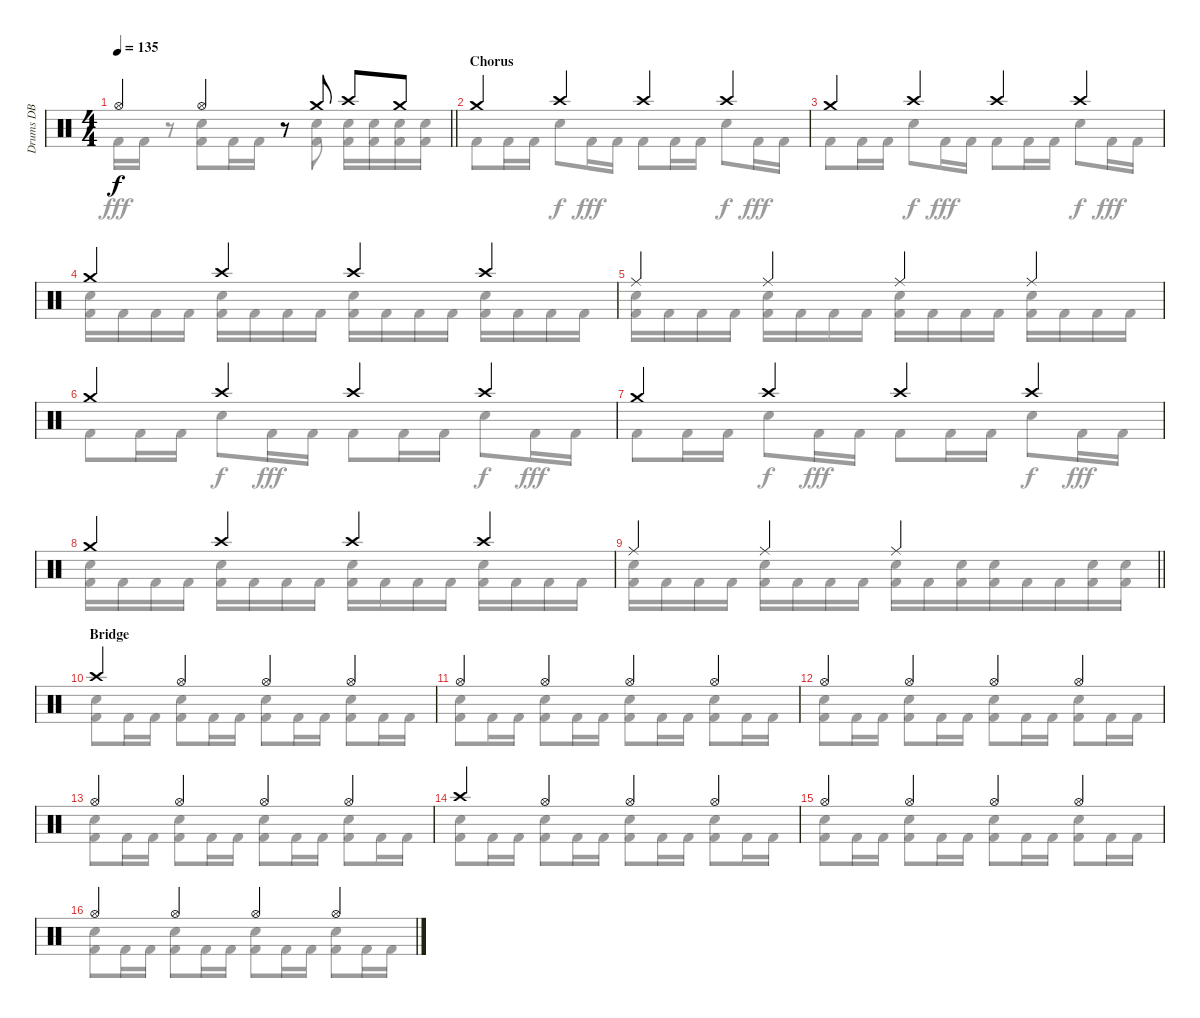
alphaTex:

\track ("Drums DB" "Drums DB") {instrument percussion}
\staff {score}
\articulation defaults
\voice
\ts (4 4)
\tempo 135
\clef neutral
\barLineRight lightlight
\ks aminor "Hi-Hat (open)".4{dy f} "Hi-Hat (open)".4
r.8 "Crash medium (hit)".8 "Crash high (hit)".8 "Crash medium (hit)".8 |
\section ("" "Chorus")
"Crash medium (hit)".4 "Crash high (hit)".4 "Crash high (hit)".4 "Crash high (hit)".4 |
"Crash medium (hit)".4 "Crash high (hit)".4 "Crash high (hit)".4 "Crash high (hit)".4 |
"Crash medium (hit)".4 "Crash high (hit)".4 "Crash high (hit)".4 "Crash high (hit)".4 |
"Ride (middle)".4 "Ride (middle)".4 "Ride (middle)".4 "Ride (middle)".4 |
"Crash medium (hit)".4 "Crash high (hit)".4 "Crash high (hit)".4 "Crash high (hit)".4 |
"Crash medium (hit)".4 "Crash high (hit)".4 "Crash high (hit)".4 "Crash high (hit)".4 |
"Crash medium (hit)".4 "Crash high (hit)".4 "Crash high (hit)".4 "Crash high (hit)".4 |
\barLineRight lightlight "Ride (middle)".4 "Ride (middle)".4 "Ride (middle)".2
|
\section ("" "Bridge")
"Crash high (hit)".4 "Hi-Hat (open)".4 "Hi-Hat (open)".4 "Hi-Hat (open)".4 |
"Hi-Hat (open)".4 "Hi-Hat (open)".4 "Hi-Hat (open)".4 "Hi-Hat (open)".4 |
"Hi-Hat (open)".4 "Hi-Hat (open)".4 "Hi-Hat (open)".4 "Hi-Hat (open)".4 |
"Hi-Hat (open)".4 "Hi-Hat (open)".4 "Hi-Hat (open)".4 "Hi-Hat (open)".4 |
"Crash high (hit)".4 "Hi-Hat (open)".4 "Hi-Hat (open)".4 "Hi-Hat (open)".4 |
"Hi-Hat (open)".4 "Hi-Hat (open)".4 "Hi-Hat (open)".4 "Hi-Hat (open)".4 |
"Hi-Hat (open)".4 "Hi-Hat (open)".4 "Hi-Hat (open)".4 "Hi-Hat (open)".4
\voice
\clef neutral
\ottava regular
\simile none
\barLineRight lightlight
\ks aminor "Kick (hit) 2".16{dy fff} "Kick (hit) 2".16
r.8 ("Snare (hit) 2" "Kick (hit) 2").8 "Kick (hit) 2".16 "Kick (hit) 2".16 r.8 ("Snare (hit) 2" "Kick (hit) 2").8 ("Snare (hit) 2" "Kick (hit) 2").16 ("Snare (hit) 2" "Kick (hit) 2").16 ("Snare (hit) 2" "Kick (hit) 2").16 ("Snare (hit) 2" "Kick (hit) 2").16 |
"Kick (hit) 2".8 "Kick (hit) 2".16 "Kick (hit) 2".16 "Snare (hit) 2".8{dy f} "Kick (hit) 2".16{dy fff} "Kick (hit) 2".16 "Kick (hit) 2".8 "Kick (hit) 2".16 "Kick (hit) 2".16 "Snare (hit) 2".8{dy f} "Kick (hit) 2".16{dy fff} "Kick (hit) 2".16 |
"Kick (hit) 2".8 "Kick (hit) 2".16 "Kick (hit) 2".16 "Snare (hit) 2".8{dy f} "Kick (hit) 2".16{dy fff} "Kick (hit) 2".16 "Kick (hit) 2".8 "Kick (hit) 2".16 "Kick (hit) 2".16 "Snare (hit) 2".8{dy f} "Kick (hit) 2".16{dy fff} "Kick (hit) 2".16 |
("Snare (hit) 2" "Kick (hit) 2").16 "Kick (hit) 2".16 "Kick (hit) 2".16 "Kick (hit) 2".16 ("Snare (hit) 2" "Kick (hit) 2").16 "Kick (hit) 2".16 "Kick (hit) 2".16 "Kick (hit) 2".16 ("Snare (hit) 2" "Kick (hit) 2").16 "Kick (hit) 2".16 "Kick (hit) 2".16 "Kick (hit) 2".16 ("Snare (hit) 2" "Kick (hit) 2").16 "Kick (hit) 2".16 "Kick (hit) 2".16 "Kick (hit) 2".16 |
("Snare (hit) 2" "Kick (hit) 2").16 "Kick (hit) 2".16 "Kick (hit) 2".16 "Kick (hit) 2".16 ("Snare (hit) 2" "Kick (hit) 2").16 "Kick (hit) 2".16 "Kick (hit) 2".16 "Kick (hit) 2".16 ("Snare (hit) 2" "Kick (hit) 2").16 "Kick (hit) 2".16 "Kick (hit) 2".16 "Kick (hit) 2".16 ("Snare (hit) 2" "Kick (hit) 2").16 "Kick (hit) 2".16 "Kick (hit) 2".16 "Kick (hit) 2".16 |
"Kick (hit) 2".8 "Kick (hit) 2".16 "Kick (hit) 2".16 "Snare (hit) 2".8{dy f} "Kick (hit) 2".16{dy fff} "Kick (hit) 2".16 "Kick (hit) 2".8 "Kick (hit) 2".16 "Kick (hit) 2".16 "Snare (hit) 2".8{dy f} "Kick (hit) 2".16{dy fff} "Kick (hit) 2".16 |
"Kick (hit) 2".8 "Kick (hit) 2".16 "Kick (hit) 2".16 "Snare (hit) 2".8{dy f} "Kick (hit) 2".16{dy fff} "Kick (hit) 2".16 "Kick (hit) 2".8 "Kick (hit) 2".16 "Kick (hit) 2".16 "Snare (hit) 2".8{dy f} "Kick (hit) 2".16{dy fff} "Kick (hit) 2".16 |
("Snare (hit) 2" "Kick (hit) 2").16 "Kick (hit) 2".16 "Kick (hit) 2".16 "Kick (hit) 2".16 ("Snare (hit) 2" "Kick (hit) 2").16 "Kick (hit) 2".16 "Kick (hit) 2".16 "Kick (hit) 2".16 ("Snare (hit) 2" "Kick (hit) 2").16 "Kick (hit) 2".16 "Kick (hit) 2".16 "Kick (hit) 2".16 ("Snare (hit) 2" "Kick (hit) 2").16 "Kick (hit) 2".16 "Kick (hit) 2".16 "Kick (hit) 2".16 |
\barLineRight lightlight
("Snare (hit) 2" "Kick (hit) 2").16 "Kick (hit) 2".16 "Kick (hit) 2".16 "Kick (hit) 2".16 ("Snare (hit) 2" "Kick (hit) 2").16 "Kick (hit) 2".16 "Kick (hit) 2".16 "Kick (hit) 2".16 ("Snare (hit) 2" "Kick (hit) 2").16 "Kick (hit) 2".16{beam merge} ("Snare (hit) 2" "Kick (hit) 2").16 ("Snare (hit) 2" "Kick (hit) 2").16{beam merge} "Kick (hit) 2".16 "Kick (hit) 2".16{beam merge} ("Snare (hit) 2" "Kick (hit) 2").16 ("Snare (hit) 2" "Kick (hit) 2").16 |
("Snare (hit) 2" "Kick (hit) 2").8 "Kick (hit) 2".16 "Kick (hit) 2".16 ("Snare (hit) 2" "Kick (hit) 2").8 "Kick (hit) 2".16 "Kick (hit) 2".16 ("Snare (hit) 2" "Kick (hit) 2").8 "Kick (hit) 2".16 "Kick (hit) 2".16 ("Snare (hit) 2" "Kick (hit) 2").8 "Kick (hit) 2".16 "Kick (hit) 2".16 |
("Snare (hit) 2" "Kick (hit) 2").8 "Kick (hit) 2".16 "Kick (hit) 2".16 ("Snare (hit) 2" "Kick (hit) 2").8 "Kick (hit) 2".16 "Kick (hit) 2".16 ("Snare (hit) 2" "Kick (hit) 2").8 "Kick (hit) 2".16 "Kick (hit) 2".16 ("Snare (hit) 2" "Kick (hit) 2").8 "Kick (hit) 2".16 "Kick (hit) 2".16 |
("Snare (hit) 2" "Kick (hit) 2").8 "Kick (hit) 2".16 "Kick (hit) 2".16 ("Snare (hit) 2" "Kick (hit) 2").8 "Kick (hit) 2".16 "Kick (hit) 2".16 ("Snare (hit) 2" "Kick (hit) 2").8 "Kick (hit) 2".16 "Kick (hit) 2".16 ("Snare (hit) 2" "Kick (hit) 2").8 "Kick (hit) 2".16 "Kick (hit) 2".16 |
("Snare (hit) 2" "Kick (hit) 2").8 "Kick (hit) 2".16 "Kick (hit) 2".16 ("Snare (hit) 2" "Kick (hit) 2").8 "Kick (hit) 2".16 "Kick (hit) 2".16 ("Snare (hit) 2" "Kick (hit) 2").8 "Kick (hit) 2".16 "Kick (hit) 2".16 ("Snare (hit) 2" "Kick (hit) 2").8 "Kick (hit) 2".16 "Kick (hit) 2".16 |
("Snare (hit) 2" "Kick (hit) 2").8 "Kick (hit) 2".16 "Kick (hit) 2".16 ("Snare (hit) 2" "Kick (hit) 2").8 "Kick (hit) 2".16 "Kick (hit) 2".16 ("Snare (hit) 2" "Kick (hit) 2").8 "Kick (hit) 2".16 "Kick (hit) 2".16 ("Snare (hit) 2" "Kick (hit) 2").8 "Kick (hit) 2".16 "Kick (hit) 2".16 |
("Snare (hit) 2" "Kick (hit) 2").8 "Kick (hit) 2".16 "Kick (hit) 2".16 ("Snare (hit) 2" "Kick (hit) 2").8 "Kick (hit) 2".16 "Kick (hit) 2".16 ("Snare (hit) 2" "Kick (hit) 2").8 "Kick (hit) 2".16 "Kick (hit) 2".16 ("Snare (hit) 2" "Kick (hit) 2").8 "Kick (hit) 2".16 "Kick (hit) 2".16 |
("Snare (hit) 2" "Kick (hit) 2").8 "Kick (hit) 2".16 "Kick (hit) 2".16 ("Snare (hit) 2" "Kick (hit) 2").8 "Kick (hit) 2".16 "Kick (hit) 2".16 ("Snare (hit) 2" "Kick (hit) 2").8 "Kick (hit) 2".16 "Kick (hit) 2".16 ("Snare (hit) 2" "Kick (hit) 2").8 "Kick (hit) 2".16 "Kick (hit) 2".16
